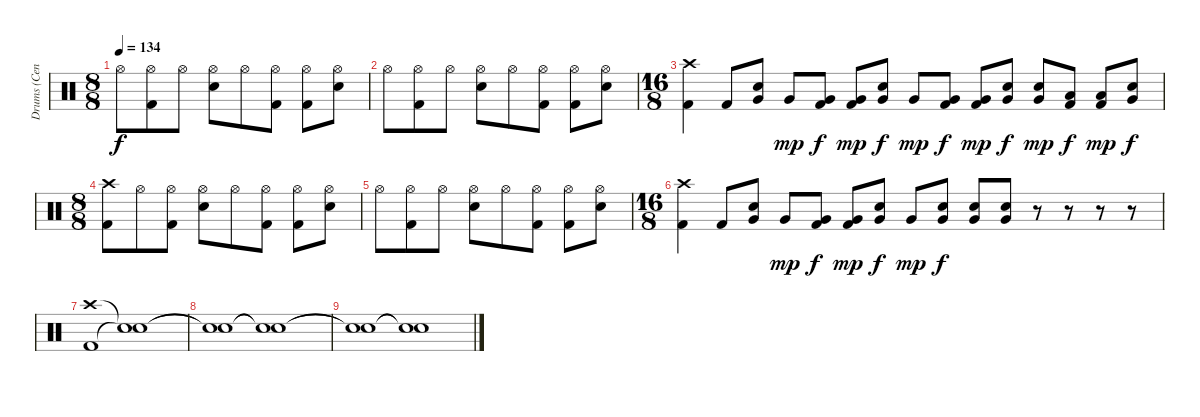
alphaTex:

\track ("Drums (Cenk)" "Drums (Cen") {instrument percussion}
\staff {score}
\articulation defaults
\ts (8 8)
\tempo 134
\clef neutral
\ks c "Hi-Hat (open)".8{dy f}
("Hi-Hat (open)" "Kick (hit) 2").8 "Hi-Hat (open)".8 ("Hi-Hat (open)" "Snare (hit) 2").8 "Hi-Hat (open)".8 ("Hi-Hat (open)" "Kick (hit) 2").8 ("Hi-Hat (open)" "Kick (hit) 2").8 ("Hi-Hat (open)" "Snare (hit) 2").8 |
"Hi-Hat (open)".8 ("Hi-Hat (open)" "Kick (hit) 2").8 "Hi-Hat (open)".8 ("Hi-Hat (open)" "Snare (hit) 2").8 "Hi-Hat (open)".8 ("Hi-Hat (open)" "Kick (hit) 2").8 ("Hi-Hat (open)" "Kick (hit) 2").8 ("Hi-Hat (open)" "Snare (hit) 2").8 |
\ts (16 8)
("Crash high (hit)" "Kick (hit) 2").4 "Kick (hit) 2".8 ("Very Low Tom (hit)" "Snare (hit) 2").8 "Very Low Tom (hit)".8{dy mp} ("Very Low Tom (hit)" "Kick (hit) 2").8{dy f} ("Very Low Tom (hit)" "Kick (hit) 2").8{dy mp} ("Very Low Tom (hit)" "Snare (hit) 2").8{dy f} "Very Low Tom (hit)".8{dy mp} ("Very Low Tom (hit)" "Kick (hit) 2").8{dy f} ("Very Low Tom (hit)" "Kick (hit) 2").8{dy mp} ("Very Low Tom (hit)" "Snare (hit) 2").8{dy f} ("Very Low Tom (hit)" "Snare (hit) 2").8{dy mp} ("Low Tom (hit)" "Kick (hit) 2").8{dy f} ("Low Tom (hit)" "Kick (hit) 2").8{dy mp} ("Very Low Tom (hit)" "Snare (hit) 2").8{dy f} |
\ts (8 8)
("Crash high (hit)" "Kick (hit) 2").8 "Hi-Hat (open)".8 ("Hi-Hat (open)" "Kick (hit) 2").8 ("Hi-Hat (open)" "Snare (hit) 2").8 "Hi-Hat (open)".8 ("Hi-Hat (open)" "Kick (hit) 2").8 ("Hi-Hat (open)" "Kick (hit) 2").8 ("Hi-Hat (open)" "Snare (hit) 2").8 |
"Hi-Hat (open)".8 ("Hi-Hat (open)" "Kick (hit) 2").8 "Hi-Hat (open)".8 ("Hi-Hat (open)" "Snare (hit) 2").8 "Hi-Hat (open)".8 ("Hi-Hat (open)" "Kick (hit) 2").8 ("Hi-Hat (open)" "Kick (hit) 2").8 ("Hi-Hat (open)" "Snare (hit) 2").8 |
\ts (16 8)
("Crash high (hit)" "Kick (hit) 2").4 "Kick (hit) 2".8 ("Very Low Tom (hit)" "Snare (hit) 2").8 "Very Low Tom (hit)".8{dy mp} ("Very Low Tom (hit)" "Kick (hit) 2").8{dy f} ("Very Low Tom (hit)" "Kick (hit) 2").8{dy mp} ("Very Low Tom (hit)" "Snare (hit) 2").8{dy f} "Very Low Tom (hit)".8{dy mp} ("Very Low Tom (hit)" "Snare (hit) 2").8{dy f} ("Very Low Tom (hit)" "Snare (hit) 2").8 ("Very Low Tom (hit)" "Snare (hit) 2").8 r.8 r.8 r.8 r.8 |
("Crash high (hit)" "Kick (hit) 2").1 ("Snare (hit)"{t} "Snare (hit)"{t}).1 |
("Snare (hit)"{t} "Snare (hit)"{t}).1 ("Snare (hit)"{t} "Snare (hit)"{t}).1 |
("Snare (hit)"{t} "Snare (hit)"{t}).1 ("Snare (hit)"{t} "Snare (hit)"{t}).1
